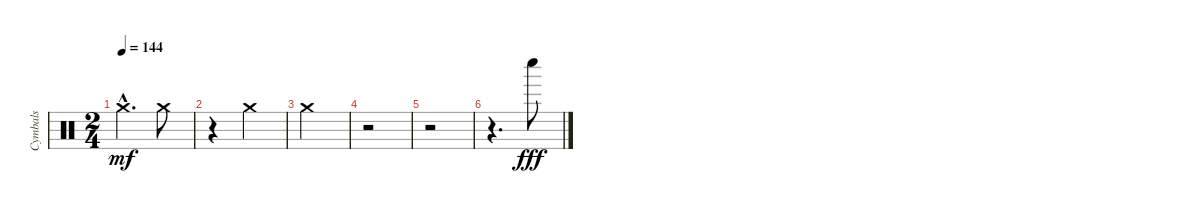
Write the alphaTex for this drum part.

\track ("Cymbals             " "Cymbals   ") {instrument percussion}
\staff {score}
\articulation defaults
\ts (2 4)
\tempo 144
\clef neutral
\ks c "Crash medium (hit)"{hac}.4{d dy mf} "Crash medium (hit)".8
|
r.4 "Crash medium (hit)".4 |
"Crash medium (hit)".2 |
r.2 |
r.2 |
r.4{d} "Whistle low (hit)".8{dy fff}
